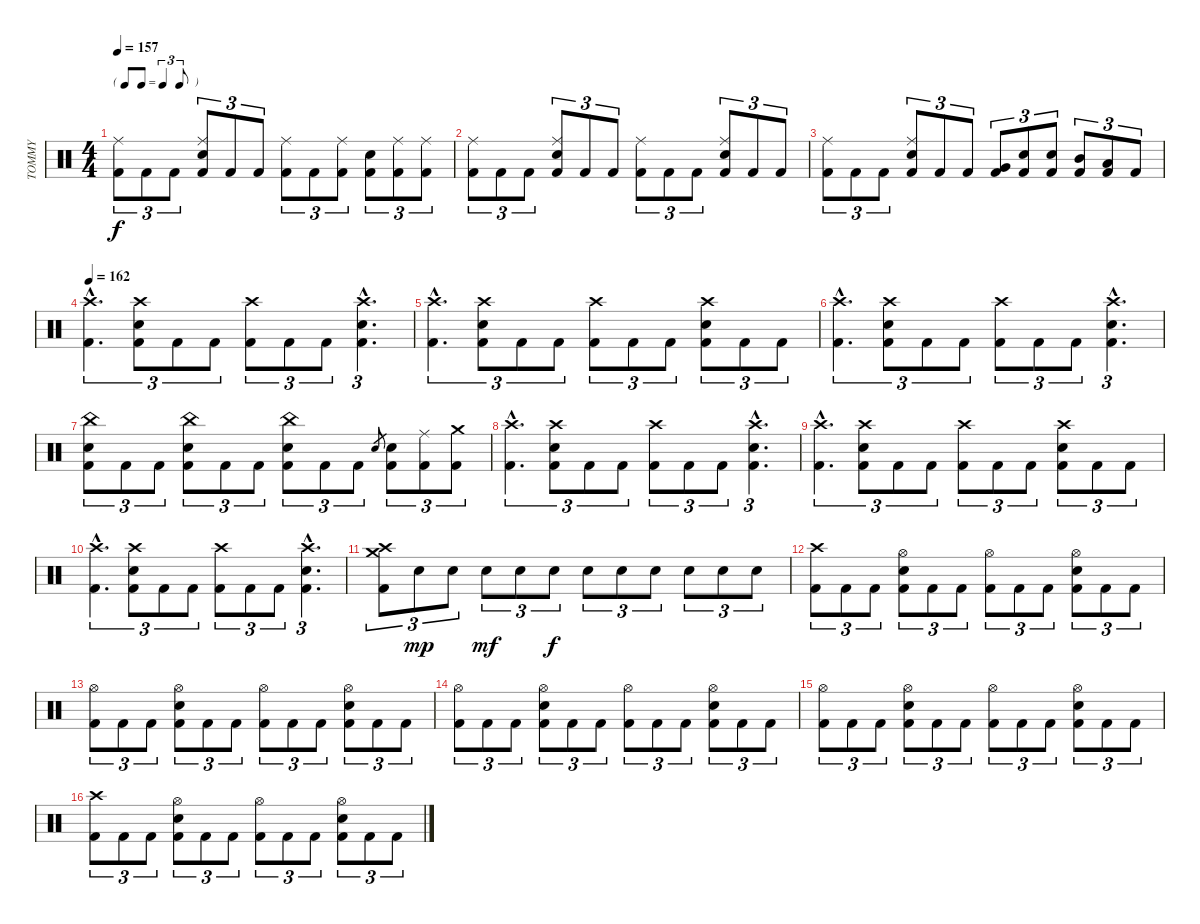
\track ("TOMMY" "TOMMY") {instrument percussion}
\staff {score}
\articulation defaults
\ts (4 4)
\tf triplet8th
\tempo 157
\clef neutral
\ks c
("Kick (hit) 2" "Ride (middle)").8{tu (3 2) dy f} "Kick (hit) 2".8{tu (3 2)} "Kick (hit) 2".8{tu (3 2)} ("Snare (hit) 2" "Kick (hit) 2" "Ride (middle)").8{tu (3 2)} "Kick (hit) 2".8{tu (3 2)} "Kick (hit) 2".8{tu (3 2)} ("Kick (hit) 2" "Ride (middle)").8{tu (3 2)} "Kick (hit) 2".8{tu (3 2)} ("Kick (hit) 2" "Ride (middle)").8{tu (3 2)} ("Snare (hit) 2" "Kick (hit) 2").8{tu (3 2)} ("Kick (hit) 2" "Ride (middle)").8{tu (3 2)} ("Kick (hit) 2" "Ride (middle)").8{tu (3 2)} |
("Kick (hit) 2" "Ride (middle)").8{tu (3 2)} "Kick (hit) 2".8{tu (3 2)} "Kick (hit) 2".8{tu (3 2)} ("Snare (hit) 2" "Kick (hit) 2" "Ride (middle)").8{tu (3 2)} "Kick (hit) 2".8{tu (3 2)} "Kick (hit) 2".8{tu (3 2)} ("Kick (hit) 2" "Ride (middle)").8{tu (3 2)} "Kick (hit) 2".8{tu (3 2)} "Kick (hit) 2".8{tu (3 2)} ("Snare (hit) 2" "Kick (hit) 2" "Ride (middle)").8{tu (3 2)} "Kick (hit) 2".8{tu (3 2)} "Kick (hit) 2".8{tu (3 2)} |
("Kick (hit) 2" "Ride (middle)").8{tu (3 2)} "Kick (hit) 2".8{tu (3 2)} "Kick (hit) 2".8{tu (3 2)} ("Snare (hit) 2" "Kick (hit) 2" "Ride (middle)").8{tu (3 2)} "Kick (hit) 2".8{tu (3 2)} "Kick (hit) 2".8{tu (3 2)} ("Kick (hit) 2" "Very Low Tom (hit)").8{tu (3 2)} ("Snare (hit) 2" "Kick (hit) 2").8{tu (3 2)} ("Snare (hit) 2" "Kick (hit) 2").8{tu (3 2)} ("Kick (hit) 2" "Mid Tom (hit)").8{tu (3 2)} ("Kick (hit) 2" "Low Floor Tom (hit)").8{tu (3 2)} "Kick (hit) 2".8{tu (3 2)} |
\tempo 162
("Kick (hit) 2"{hac} "Crash high (hit)"{hac}).4{d tu (3 2)} ("Snare (hit) 2" "Kick (hit) 2" "Crash high (hit)").8{tu (3 2)} "Kick (hit) 2".8{tu (3 2)} "Kick (hit) 2".8{tu (3 2)} ("Kick (hit) 2" "Crash high (hit)").8{tu (3 2)} "Kick (hit) 2".8{tu (3 2)} "Kick (hit) 2".8{tu (3 2)} ("Snare (hit) 2"{hac} "Kick (hit) 2"{hac} "Crash high (hit)"{hac}).4{d tu (3 2)} |
("Kick (hit) 2"{hac} "Crash high (hit)"{hac}).4{d tu (3 2)} ("Snare (hit) 2" "Kick (hit) 2" "Crash high (hit)").8{tu (3 2)} "Kick (hit) 2".8{tu (3 2)} "Kick (hit) 2".8{tu (3 2)} ("Kick (hit) 2" "Crash high (hit)").8{tu (3 2)} "Kick (hit) 2".8{tu (3 2)} "Kick (hit) 2".8{tu (3 2)} ("Snare (hit) 2" "Kick (hit) 2" "Crash high (hit)").8{tu (3 2)} "Kick (hit) 2".8{tu (3 2)} "Kick (hit) 2".8{tu (3 2)} |
("Kick (hit) 2"{hac} "Crash high (hit)"{hac}).4{d tu (3 2)} ("Snare (hit) 2" "Kick (hit) 2" "Crash high (hit)").8{tu (3 2)} "Kick (hit) 2".8{tu (3 2)} "Kick (hit) 2".8{tu (3 2)} ("Kick (hit) 2" "Crash high (hit)").8{tu (3 2)} "Kick (hit) 2".8{tu (3 2)} "Kick (hit) 2".8{tu (3 2)} ("Snare (hit) 2"{hac} "Kick (hit) 2"{hac} "Crash high (hit)"{hac}).4{d tu (3 2)} |
("Snare (hit) 2" "Kick (hit) 2" "China (hit)").8{tu (3 2)} "Kick (hit) 2".8{tu (3 2)} "Kick (hit) 2".8{tu (3 2)} ("Snare (hit) 2" "Kick (hit) 2" "China (hit)").8{tu (3 2)} "Kick (hit) 2".8{tu (3 2)} "Kick (hit) 2".8{tu (3 2)} ("Snare (hit) 2" "Kick (hit) 2" "China (hit)").8{tu (3 2)} "Kick (hit) 2".8{tu (3 2)} "Kick (hit) 2".8{tu (3 2)} "Snare (hit) 2".8{gr} ("Snare (hit) 2" "Kick (hit) 2").8{tu (3 2)} ("Kick (hit) 2" "Ride (middle)").8{tu (3 2)} ("Kick (hit) 2" "Crash medium (hit)").8{tu (3 2)} |
("Kick (hit) 2"{hac} "Crash high (hit)"{hac}).4{d tu (3 2)} ("Snare (hit) 2" "Kick (hit) 2" "Crash high (hit)").8{tu (3 2)} "Kick (hit) 2".8{tu (3 2)} "Kick (hit) 2".8{tu (3 2)} ("Kick (hit) 2" "Crash high (hit)").8{tu (3 2)} "Kick (hit) 2".8{tu (3 2)} "Kick (hit) 2".8{tu (3 2)} ("Snare (hit) 2"{hac} "Kick (hit) 2"{hac} "Crash high (hit)"{hac}).4{d tu (3 2)} |
("Kick (hit) 2"{hac} "Crash high (hit)"{hac}).4{d tu (3 2)} ("Snare (hit) 2" "Kick (hit) 2" "Crash high (hit)").8{tu (3 2)} "Kick (hit) 2".8{tu (3 2)} "Kick (hit) 2".8{tu (3 2)} ("Kick (hit) 2" "Crash high (hit)").8{tu (3 2)} "Kick (hit) 2".8{tu (3 2)} "Kick (hit) 2".8{tu (3 2)} ("Snare (hit) 2" "Kick (hit) 2" "Crash high (hit)").8{tu (3 2)} "Kick (hit) 2".8{tu (3 2)} "Kick (hit) 2".8{tu (3 2)} |
("Kick (hit) 2"{hac} "Crash high (hit)"{hac}).4{d tu (3 2)} ("Snare (hit) 2" "Kick (hit) 2" "Crash high (hit)").8{tu (3 2)} "Kick (hit) 2".8{tu (3 2)} "Kick (hit) 2".8{tu (3 2)} ("Kick (hit) 2" "Crash high (hit)").8{tu (3 2)} "Kick (hit) 2".8{tu (3 2)} "Kick (hit) 2".8{tu (3 2)} ("Snare (hit) 2"{hac} "Kick (hit) 2"{hac} "Crash high (hit)"{hac}).4{d tu (3 2)} |
("Kick (hit) 2" "Crash high (hit)" "Crash medium (hit)").8{tu (3 2)} "Snare (hit) 2".8{tu (3 2) dy mp} "Snare (hit) 2".8{tu (3 2)} "Snare (hit) 2".8{tu (3 2) dy mf} "Snare (hit) 2".8{tu (3 2)} "Snare (hit) 2".8{tu (3 2) dy f} "Snare (hit) 2".8{tu (3 2)} "Snare (hit) 2".8{tu (3 2)} "Snare (hit) 2".8{tu (3 2)} "Snare (hit) 2".8{tu (3 2)} "Snare (hit) 2".8{tu (3 2)} "Snare (hit) 2".8{tu (3 2)} |
("Kick (hit) 2" "Crash high (hit)").8{tu (3 2)} "Kick (hit) 2".8{tu (3 2)} "Kick (hit) 2".8{tu (3 2)} ("Snare (hit) 2" "Kick (hit) 2" "Hi-Hat (open)").8{tu (3 2)} "Kick (hit) 2".8{tu (3 2)} "Kick (hit) 2".8{tu (3 2)} ("Kick (hit) 2" "Hi-Hat (open)").8{tu (3 2)} "Kick (hit) 2".8{tu (3 2)} "Kick (hit) 2".8{tu (3 2)} ("Snare (hit) 2" "Kick (hit) 2" "Hi-Hat (open)").8{tu (3 2)} "Kick (hit) 2".8{tu (3 2)} "Kick (hit) 2".8{tu (3 2)} |
("Kick (hit) 2" "Hi-Hat (open)").8{tu (3 2)} "Kick (hit) 2".8{tu (3 2)} "Kick (hit) 2".8{tu (3 2)} ("Snare (hit) 2" "Kick (hit) 2" "Hi-Hat (open)").8{tu (3 2)} "Kick (hit) 2".8{tu (3 2)} "Kick (hit) 2".8{tu (3 2)} ("Kick (hit) 2" "Hi-Hat (open)").8{tu (3 2)} "Kick (hit) 2".8{tu (3 2)} "Kick (hit) 2".8{tu (3 2)} ("Snare (hit) 2" "Kick (hit) 2" "Hi-Hat (open)").8{tu (3 2)} "Kick (hit) 2".8{tu (3 2)} "Kick (hit) 2".8{tu (3 2)} |
("Kick (hit) 2" "Hi-Hat (open)").8{tu (3 2)} "Kick (hit) 2".8{tu (3 2)} "Kick (hit) 2".8{tu (3 2)} ("Snare (hit) 2" "Kick (hit) 2" "Hi-Hat (open)").8{tu (3 2)} "Kick (hit) 2".8{tu (3 2)} "Kick (hit) 2".8{tu (3 2)} ("Kick (hit) 2" "Hi-Hat (open)").8{tu (3 2)} "Kick (hit) 2".8{tu (3 2)} "Kick (hit) 2".8{tu (3 2)} ("Snare (hit) 2" "Kick (hit) 2" "Hi-Hat (open)").8{tu (3 2)} "Kick (hit) 2".8{tu (3 2)} "Kick (hit) 2".8{tu (3 2)} |
("Kick (hit) 2" "Hi-Hat (open)").8{tu (3 2)} "Kick (hit) 2".8{tu (3 2)} "Kick (hit) 2".8{tu (3 2)} ("Snare (hit) 2" "Kick (hit) 2" "Hi-Hat (open)").8{tu (3 2)} "Kick (hit) 2".8{tu (3 2)} "Kick (hit) 2".8{tu (3 2)} ("Kick (hit) 2" "Hi-Hat (open)").8{tu (3 2)} "Kick (hit) 2".8{tu (3 2)} "Kick (hit) 2".8{tu (3 2)} ("Snare (hit) 2" "Kick (hit) 2" "Hi-Hat (open)").8{tu (3 2)} "Kick (hit) 2".8{tu (3 2)} "Kick (hit) 2".8{tu (3 2)} |
("Kick (hit) 2" "Crash high (hit)").8{tu (3 2)} "Kick (hit) 2".8{tu (3 2)} "Kick (hit) 2".8{tu (3 2)} ("Snare (hit) 2" "Kick (hit) 2" "Hi-Hat (open)").8{tu (3 2)} "Kick (hit) 2".8{tu (3 2)} "Kick (hit) 2".8{tu (3 2)} ("Kick (hit) 2" "Hi-Hat (open)").8{tu (3 2)} "Kick (hit) 2".8{tu (3 2)} "Kick (hit) 2".8{tu (3 2)} ("Snare (hit) 2" "Kick (hit) 2" "Hi-Hat (open)").8{tu (3 2)} "Kick (hit) 2".8{tu (3 2)} "Kick (hit) 2".8{tu (3 2)}
